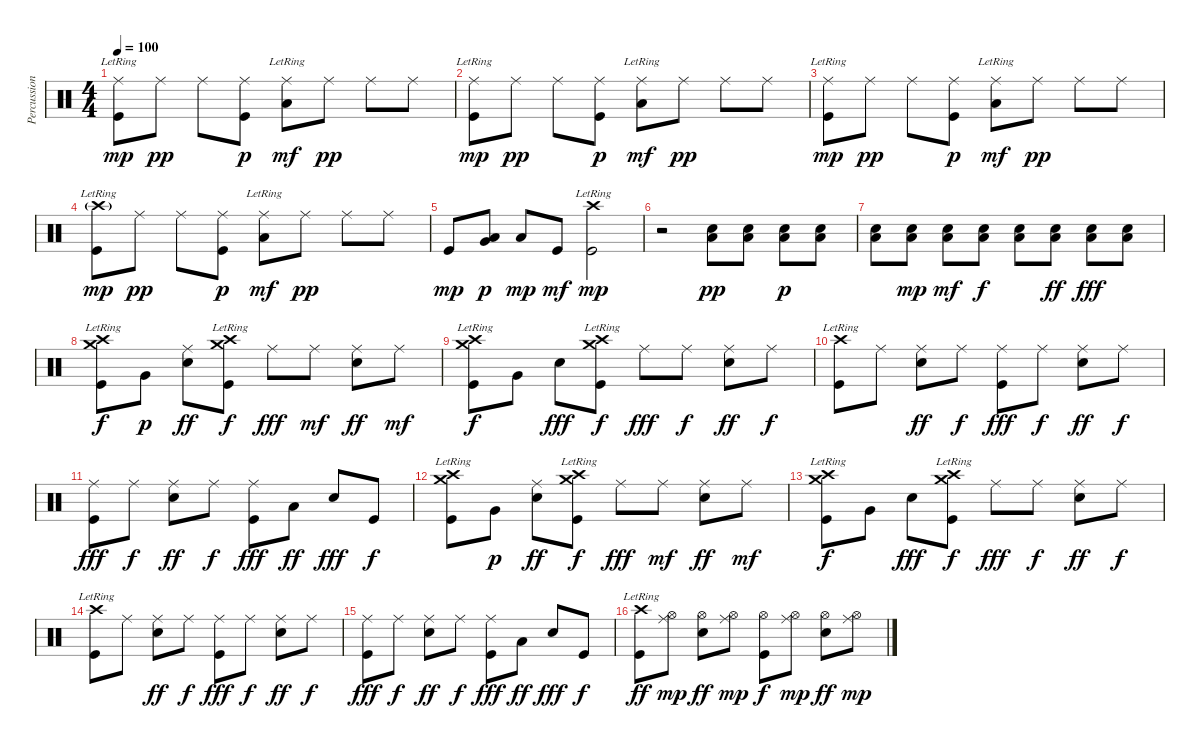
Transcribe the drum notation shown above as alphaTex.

\track ("Percussion" "Percussion") {instrument percussion}
\staff {score}
\articulation defaults
\ts (4 4)
\tempo 100
\clef neutral
\ks c
("Ride (middle)"{lr} "Kick (hit)").8{dy mp} "Ride (middle)".8{dy pp} "Ride (middle)".8 ("Ride (middle)" "Kick (hit)").8{dy p} ("Ride (middle)"{lr} "Low Floor Tom (hit)").8{dy mf} "Ride (middle)".8{dy pp} "Ride (middle)".8 "Ride (middle)".8 |
("Ride (middle)"{lr} "Kick (hit)").8{dy mp} "Ride (middle)".8{dy pp} "Ride (middle)".8 ("Ride (middle)" "Kick (hit)").8{dy p} ("Ride (middle)"{lr} "Low Floor Tom (hit)").8{dy mf} "Ride (middle)".8{dy pp} "Ride (middle)".8 "Ride (middle)".8 |
("Ride (middle)"{lr} "Kick (hit)").8{dy mp} "Ride (middle)".8{dy pp} "Ride (middle)".8 ("Ride (middle)" "Kick (hit)").8{dy p} ("Ride (middle)"{lr} "Low Floor Tom (hit)").8{dy mf} "Ride (middle)".8{dy pp} "Ride (middle)".8 "Ride (middle)".8 |
("Crash high (hit)"{g lr} "Kick (hit)").8{dy mp} "Ride (middle)".8{dy pp} "Ride (middle)".8 ("Ride (middle)" "Kick (hit)").8{dy p} ("Ride (middle)"{lr} "Low Floor Tom (hit)").8{dy mf} "Ride (middle)".8{dy pp} "Ride (middle)".8 "Ride (middle)".8 |
"Kick (hit)".8{dy mp} ("Very Low Tom (hit)" "Low Floor Tom (hit)").8{dy p} "Low Floor Tom (hit)".8{dy mp} "Kick (hit)".8{dy mf} ("Crash high (hit)"{lr} "Kick (hit)").2{dy mp} |
r.2 ("Low Floor Tom (hit)" "Electric Snare (hit)").8{dy pp} ("Low Floor Tom (hit)" "Electric Snare (hit)").8 ("Low Floor Tom (hit)" "Electric Snare (hit)").8{dy p} ("Low Floor Tom (hit)" "Electric Snare (hit)").8 |
("Low Floor Tom (hit)" "Electric Snare (hit)").8 ("Low Floor Tom (hit)" "Electric Snare (hit)").8{dy mp} ("Low Floor Tom (hit)" "Electric Snare (hit)").8{dy mf} ("Low Floor Tom (hit)" "Electric Snare (hit)").8{dy f} ("Low Floor Tom (hit)" "Electric Snare (hit)").8 ("Low Floor Tom (hit)" "Electric Snare (hit)").8{dy ff} ("Low Floor Tom (hit)" "Electric Snare (hit)").8{dy fff} ("Low Floor Tom (hit)" "Electric Snare (hit)").8 |
("Crash high (hit)"{lr} "Crash medium (hit)"{lr} "Kick (hit)").8{dy f} "Very Low Tom (hit)".8{dy p} ("Ride (middle)" "Electric Snare (hit)").8{dy ff} ("Crash high (hit)"{lr} "Crash medium (hit)"{lr} "Kick (hit)").8{dy f} "Ride (middle)".8{dy fff} "Ride (middle)".8{dy mf} ("Ride (middle)" "Electric Snare (hit)").8{dy ff} "Ride (middle)".8{dy mf} |
("Crash high (hit)"{lr} "Crash medium (hit)"{lr} "Kick (hit)").8{dy f} "Very Low Tom (hit)".8 "Electric Snare (hit)".8{dy fff} ("Crash high (hit)"{lr} "Crash medium (hit)"{lr} "Kick (hit)").8{dy f} "Ride (middle)".8{dy fff} "Ride (middle)".8{dy f} ("Ride (middle)" "Electric Snare (hit)").8{dy ff} "Ride (middle)".8{dy f} |
("Crash high (hit)"{lr} "Kick (hit)").8 "Ride (middle)".8 ("Ride (middle)" "Electric Snare (hit)").8{dy ff} "Ride (middle)".8{dy f} ("Ride (middle)" "Kick (hit)").8{dy fff} "Ride (middle)".8{dy f} ("Ride (middle)" "Electric Snare (hit)").8{dy ff} "Ride (middle)".8{dy f} |
("Ride (middle)" "Kick (hit)").8{dy fff} "Ride (middle)".8{dy f} ("Ride (middle)" "Electric Snare (hit)").8{dy ff} "Ride (middle)".8{dy f} ("Ride (middle)" "Kick (hit)").8{dy fff} "Low Tom (hit)".8{dy ff} "Electric Snare (hit)".8{dy fff} "Kick (hit)".8{dy f} |
("Crash high (hit)"{lr} "Crash medium (hit)"{lr} "Kick (hit)").8 "Very Low Tom (hit)".8{dy p} ("Ride (middle)" "Electric Snare (hit)").8{dy ff} ("Crash high (hit)"{lr} "Crash medium (hit)"{lr} "Kick (hit)").8{dy f} "Ride (middle)".8{dy fff} "Ride (middle)".8{dy mf} ("Ride (middle)" "Electric Snare (hit)").8{dy ff} "Ride (middle)".8{dy mf} |
("Crash high (hit)"{lr} "Crash medium (hit)"{lr} "Kick (hit)").8{dy f} "Very Low Tom (hit)".8 "Electric Snare (hit)".8{dy fff} ("Crash high (hit)"{lr} "Crash medium (hit)"{lr} "Kick (hit)").8{dy f} "Ride (middle)".8{dy fff} "Ride (middle)".8{dy f} ("Ride (middle)" "Electric Snare (hit)").8{dy ff} "Ride (middle)".8{dy f} |
("Crash high (hit)"{lr} "Kick (hit)").8 "Ride (middle)".8 ("Ride (middle)" "Electric Snare (hit)").8{dy ff} "Ride (middle)".8{dy f} ("Ride (middle)" "Kick (hit)").8{dy fff} "Ride (middle)".8{dy f} ("Ride (middle)" "Electric Snare (hit)").8{dy ff} "Ride (middle)".8{dy f} |
("Ride (middle)" "Kick (hit)").8{dy fff} "Ride (middle)".8{dy f} ("Ride (middle)" "Electric Snare (hit)").8{dy ff} "Ride (middle)".8{dy f} ("Ride (middle)" "Kick (hit)").8{dy fff} "Low Tom (hit)".8{dy ff} "Electric Snare (hit)".8{dy fff} "Kick (hit)".8{dy f} |
("Crash high (hit)"{lr} "Kick (hit)").8{dy ff} ("Ride (middle)" "Hi-Hat (open)").8{dy mp} ("Hi-Hat (open)" "Electric Snare (hit)").8{dy ff} ("Ride (middle)" "Hi-Hat (open)").8{dy mp} ("Hi-Hat (open)" "Kick (hit)").8{dy f} ("Ride (middle)" "Hi-Hat (open)").8{dy mp} ("Hi-Hat (open)" "Electric Snare (hit)").8{dy ff} ("Ride (middle)" "Hi-Hat (open)").8{dy mp}
